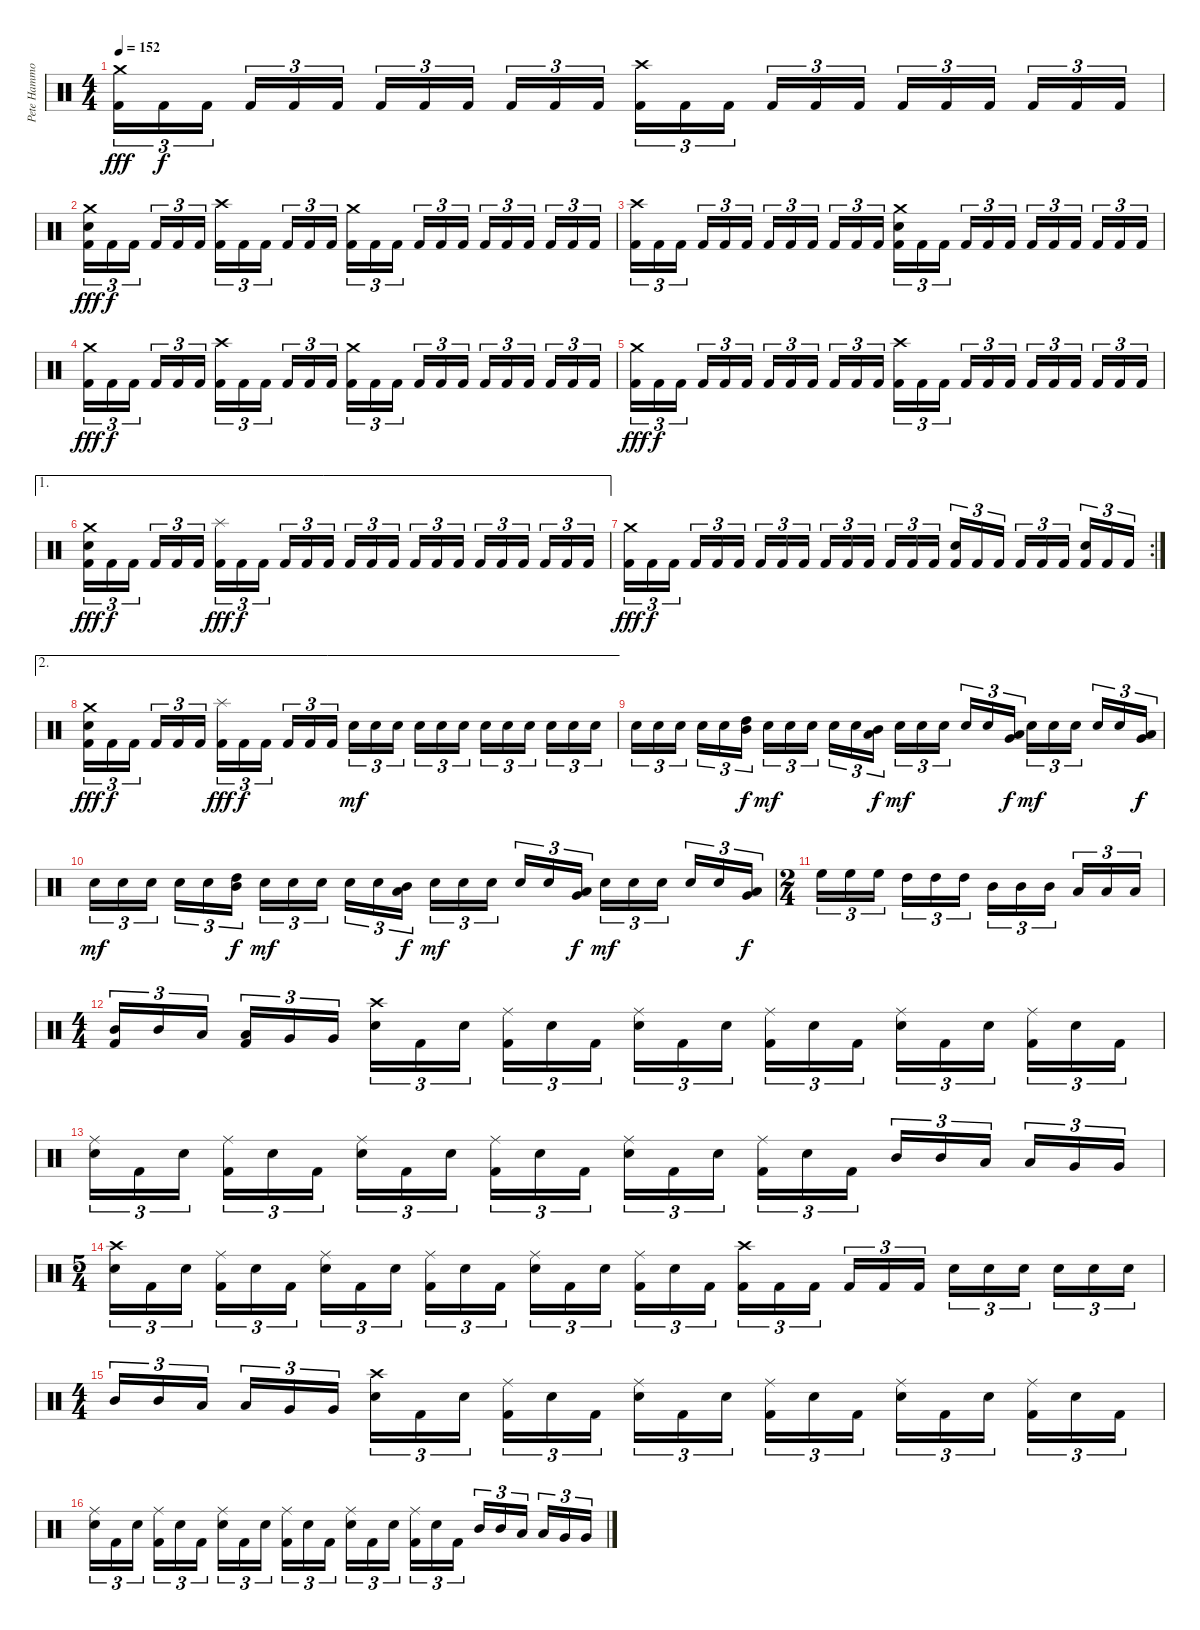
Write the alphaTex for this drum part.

\track ("Pete Hammoura" "Pete Hammo") {instrument percussion}
\staff {score}
\articulation defaults
\ts (4 4)
\tempo 152
\clef neutral
\ks c
("Crash medium (hit)" "Kick (hit) 2").16{tu (3 2) dy fff} "Kick (hit) 2".16{tu (3 2) dy f} "Kick (hit) 2".16{tu (3 2)} "Kick (hit) 2".16{tu (3 2)} "Kick (hit) 2".16{tu (3 2)} "Kick (hit) 2".16{tu (3 2)} "Kick (hit) 2".16{tu (3 2)} "Kick (hit) 2".16{tu (3 2)} "Kick (hit) 2".16{tu (3 2)} "Kick (hit) 2".16{tu (3 2)} "Kick (hit) 2".16{tu (3 2)} "Kick (hit) 2".16{tu (3 2)} ("Crash high (hit)" "Kick (hit) 2").16{tu (3 2)} "Kick (hit) 2".16{tu (3 2)} "Kick (hit) 2".16{tu (3 2)} "Kick (hit) 2".16{tu (3 2)} "Kick (hit) 2".16{tu (3 2)} "Kick (hit) 2".16{tu (3 2)} "Kick (hit) 2".16{tu (3 2)} "Kick (hit) 2".16{tu (3 2)} "Kick (hit) 2".16{tu (3 2)} "Kick (hit) 2".16{tu (3 2)} "Kick (hit) 2".16{tu (3 2)} "Kick (hit) 2".16{tu (3 2)} |
("Crash medium (hit)" "Electric Snare (hit)" "Kick (hit) 2").16{tu (3 2) dy fff} "Kick (hit) 2".16{tu (3 2) dy f} "Kick (hit) 2".16{tu (3 2)} "Kick (hit) 2".16{tu (3 2)} "Kick (hit) 2".16{tu (3 2)} "Kick (hit) 2".16{tu (3 2)} ("Crash high (hit)" "Kick (hit) 2").16{tu (3 2)} "Kick (hit) 2".16{tu (3 2)} "Kick (hit) 2".16{tu (3 2)} "Kick (hit) 2".16{tu (3 2)} "Kick (hit) 2".16{tu (3 2)} "Kick (hit) 2".16{tu (3 2)} ("Crash medium (hit)" "Kick (hit) 2").16{tu (3 2)} "Kick (hit) 2".16{tu (3 2)} "Kick (hit) 2".16{tu (3 2)} "Kick (hit) 2".16{tu (3 2)} "Kick (hit) 2".16{tu (3 2)} "Kick (hit) 2".16{tu (3 2)} "Kick (hit) 2".16{tu (3 2)} "Kick (hit) 2".16{tu (3 2)} "Kick (hit) 2".16{tu (3 2)} "Kick (hit) 2".16{tu (3 2)} "Kick (hit) 2".16{tu (3 2)} "Kick (hit) 2".16{tu (3 2)} |
("Crash high (hit)" "Kick (hit) 2").16{tu (3 2)} "Kick (hit) 2".16{tu (3 2)} "Kick (hit) 2".16{tu (3 2)} "Kick (hit) 2".16{tu (3 2)} "Kick (hit) 2".16{tu (3 2)} "Kick (hit) 2".16{tu (3 2)} "Kick (hit) 2".16{tu (3 2)} "Kick (hit) 2".16{tu (3 2)} "Kick (hit) 2".16{tu (3 2)} "Kick (hit) 2".16{tu (3 2)} "Kick (hit) 2".16{tu (3 2)} "Kick (hit) 2".16{tu (3 2)} ("Crash medium (hit)" "Electric Snare (hit)" "Kick (hit) 2").16{tu (3 2)} "Kick (hit) 2".16{tu (3 2)} "Kick (hit) 2".16{tu (3 2)} "Kick (hit) 2".16{tu (3 2)} "Kick (hit) 2".16{tu (3 2)} "Kick (hit) 2".16{tu (3 2)} "Kick (hit) 2".16{tu (3 2)} "Kick (hit) 2".16{tu (3 2)} "Kick (hit) 2".16{tu (3 2)} "Kick (hit) 2".16{tu (3 2)} "Kick (hit) 2".16{tu (3 2)} "Kick (hit) 2".16{tu (3 2)} |
("Crash medium (hit)" "Kick (hit) 2").16{tu (3 2) dy fff} "Kick (hit) 2".16{tu (3 2) dy f} "Kick (hit) 2".16{tu (3 2)} "Kick (hit) 2".16{tu (3 2)} "Kick (hit) 2".16{tu (3 2)} "Kick (hit) 2".16{tu (3 2)} ("Crash high (hit)" "Kick (hit) 2").16{tu (3 2)} "Kick (hit) 2".16{tu (3 2)} "Kick (hit) 2".16{tu (3 2)} "Kick (hit) 2".16{tu (3 2)} "Kick (hit) 2".16{tu (3 2)} "Kick (hit) 2".16{tu (3 2)} ("Crash medium (hit)" "Kick (hit) 2").16{tu (3 2)} "Kick (hit) 2".16{tu (3 2)} "Kick (hit) 2".16{tu (3 2)} "Kick (hit) 2".16{tu (3 2)} "Kick (hit) 2".16{tu (3 2)} "Kick (hit) 2".16{tu (3 2)} "Kick (hit) 2".16{tu (3 2)} "Kick (hit) 2".16{tu (3 2)} "Kick (hit) 2".16{tu (3 2)} "Kick (hit) 2".16{tu (3 2)} "Kick (hit) 2".16{tu (3 2)} "Kick (hit) 2".16{tu (3 2)} |
("Crash medium (hit)" "Kick (hit) 2").16{tu (3 2) dy fff} "Kick (hit) 2".16{tu (3 2) dy f} "Kick (hit) 2".16{tu (3 2)} "Kick (hit) 2".16{tu (3 2)} "Kick (hit) 2".16{tu (3 2)} "Kick (hit) 2".16{tu (3 2)} "Kick (hit) 2".16{tu (3 2)} "Kick (hit) 2".16{tu (3 2)} "Kick (hit) 2".16{tu (3 2)} "Kick (hit) 2".16{tu (3 2)} "Kick (hit) 2".16{tu (3 2)} "Kick (hit) 2".16{tu (3 2)} ("Crash high (hit)" "Kick (hit) 2").16{tu (3 2)} "Kick (hit) 2".16{tu (3 2)} "Kick (hit) 2".16{tu (3 2)} "Kick (hit) 2".16{tu (3 2)} "Kick (hit) 2".16{tu (3 2)} "Kick (hit) 2".16{tu (3 2)} "Kick (hit) 2".16{tu (3 2)} "Kick (hit) 2".16{tu (3 2)} "Kick (hit) 2".16{tu (3 2)} "Kick (hit) 2".16{tu (3 2)} "Kick (hit) 2".16{tu (3 2)} "Kick (hit) 2".16{tu (3 2)} |
\ae 1
("Crash medium (hit)" "Electric Snare (hit)" "Kick (hit) 2").16{tu (3 2) dy fff} "Kick (hit) 2".16{tu (3 2) dy f} "Kick (hit) 2".16{tu (3 2)} "Kick (hit) 2".16{tu (3 2)} "Kick (hit) 2".16{tu (3 2)} "Kick (hit) 2".16{tu (3 2)} ("Splash (hit)" "Kick (hit) 2").16{tu (3 2) dy fff} "Kick (hit) 2".16{tu (3 2) dy f} "Kick (hit) 2".16{tu (3 2)} "Kick (hit) 2".16{tu (3 2)} "Kick (hit) 2".16{tu (3 2)} "Kick (hit) 2".16{tu (3 2)} "Kick (hit) 2".16{tu (3 2)} "Kick (hit) 2".16{tu (3 2)} "Kick (hit) 2".16{tu (3 2)} "Kick (hit) 2".16{tu (3 2)} "Kick (hit) 2".16{tu (3 2)} "Kick (hit) 2".16{tu (3 2)} "Kick (hit) 2".16{tu (3 2)} "Kick (hit) 2".16{tu (3 2)} "Kick (hit) 2".16{tu (3 2)} "Kick (hit) 2".16{tu (3 2)} "Kick (hit) 2".16{tu (3 2)} "Kick (hit) 2".16{tu (3 2)} |
\rc 2
("Crash medium (hit)" "Kick (hit) 2").16{tu (3 2) dy fff} "Kick (hit) 2".16{tu (3 2) dy f} "Kick (hit) 2".16{tu (3 2)} "Kick (hit) 2".16{tu (3 2)} "Kick (hit) 2".16{tu (3 2)} "Kick (hit) 2".16{tu (3 2)} "Kick (hit) 2".16{tu (3 2)} "Kick (hit) 2".16{tu (3 2)} "Kick (hit) 2".16{tu (3 2)} "Kick (hit) 2".16{tu (3 2)} "Kick (hit) 2".16{tu (3 2)} "Kick (hit) 2".16{tu (3 2)} "Kick (hit) 2".16{tu (3 2)} "Kick (hit) 2".16{tu (3 2)} "Kick (hit) 2".16{tu (3 2)} ("Electric Snare (hit)" "Kick (hit) 2").16{tu (3 2)} "Kick (hit) 2".16{tu (3 2)} "Kick (hit) 2".16{tu (3 2)} "Kick (hit) 2".16{tu (3 2)} "Kick (hit) 2".16{tu (3 2)} "Kick (hit) 2".16{tu (3 2)} ("Electric Snare (hit)" "Kick (hit) 2").16{tu (3 2)} "Kick (hit) 2".16{tu (3 2)} "Kick (hit) 2".16{tu (3 2)} |
\ae 2
("Crash medium (hit)" "Electric Snare (hit)" "Kick (hit) 2").16{tu (3 2) dy fff} "Kick (hit) 2".16{tu (3 2) dy f} "Kick (hit) 2".16{tu (3 2)} "Kick (hit) 2".16{tu (3 2)} "Kick (hit) 2".16{tu (3 2)} "Kick (hit) 2".16{tu (3 2)} ("Splash (hit)" "Kick (hit) 2").16{tu (3 2) dy fff} "Kick (hit) 2".16{tu (3 2) dy f} "Kick (hit) 2".16{tu (3 2)} "Kick (hit) 2".16{tu (3 2)} "Kick (hit) 2".16{tu (3 2)} "Kick (hit) 2".16{tu (3 2)} "Electric Snare (hit)".16{tu (3 2) dy mf} "Electric Snare (hit)".16{tu (3 2)} "Electric Snare (hit)".16{tu (3 2)} "Electric Snare (hit)".16{tu (3 2)} "Electric Snare (hit)".16{tu (3 2)} "Electric Snare (hit)".16{tu (3 2)} "Electric Snare (hit)".16{tu (3 2)} "Electric Snare (hit)".16{tu (3 2)} "Electric Snare (hit)".16{tu (3 2)} "Electric Snare (hit)".16{tu (3 2)} "Electric Snare (hit)".16{tu (3 2)} "Electric Snare (hit)".16{tu (3 2)} |
"Electric Snare (hit)".16{tu (3 2)} "Electric Snare (hit)".16{tu (3 2)} "Electric Snare (hit)".16{tu (3 2)} "Electric Snare (hit)".16{tu (3 2)} "Electric Snare (hit)".16{tu (3 2)} ("High Tom (hit)" "Mid Tom (hit)").16{tu (3 2) dy f} "Electric Snare (hit)".16{tu (3 2) dy mf} "Electric Snare (hit)".16{tu (3 2)} "Electric Snare (hit)".16{tu (3 2)} "Electric Snare (hit)".16{tu (3 2)} "Electric Snare (hit)".16{tu (3 2)} ("Mid Tom (hit)" "Low Tom (hit)").16{tu (3 2) dy f} "Electric Snare (hit)".16{tu (3 2) dy mf} "Electric Snare (hit)".16{tu (3 2)} "Electric Snare (hit)".16{tu (3 2)} "Electric Snare (hit)".16{tu (3 2)} "Electric Snare (hit)".16{tu (3 2)} ("Low Tom (hit)" "Very Low Tom (hit)").16{tu (3 2) dy f} "Electric Snare (hit)".16{tu (3 2) dy mf} "Electric Snare (hit)".16{tu (3 2)} "Electric Snare (hit)".16{tu (3 2)} "Electric Snare (hit)".16{tu (3 2)} "Electric Snare (hit)".16{tu (3 2)} ("Very Low Tom (hit)" "Low Floor Tom (hit)").16{tu (3 2) dy f} |
"Electric Snare (hit)".16{tu (3 2) dy mf} "Electric Snare (hit)".16{tu (3 2)} "Electric Snare (hit)".16{tu (3 2)} "Electric Snare (hit)".16{tu (3 2)} "Electric Snare (hit)".16{tu (3 2)} ("High Tom (hit)" "Mid Tom (hit)").16{tu (3 2) dy f} "Electric Snare (hit)".16{tu (3 2) dy mf} "Electric Snare (hit)".16{tu (3 2)} "Electric Snare (hit)".16{tu (3 2)} "Electric Snare (hit)".16{tu (3 2)} "Electric Snare (hit)".16{tu (3 2)} ("Mid Tom (hit)" "Low Tom (hit)").16{tu (3 2) dy f} "Electric Snare (hit)".16{tu (3 2) dy mf} "Electric Snare (hit)".16{tu (3 2)} "Electric Snare (hit)".16{tu (3 2)} "Electric Snare (hit)".16{tu (3 2)} "Electric Snare (hit)".16{tu (3 2)} ("Low Tom (hit)" "Very Low Tom (hit)").16{tu (3 2) dy f} "Electric Snare (hit)".16{tu (3 2) dy mf} "Electric Snare (hit)".16{tu (3 2)} "Electric Snare (hit)".16{tu (3 2)} "Electric Snare (hit)".16{tu (3 2)} "Electric Snare (hit)".16{tu (3 2)} ("Very Low Tom (hit)" "Low Floor Tom (hit)").16{tu (3 2) dy f} |
\ts (2 4)
"High Floor Tom (hit)".16{tu (3 2)} "High Floor Tom (hit)".16{tu (3 2)} "High Floor Tom (hit)".16{tu (3 2)} "High Tom (hit)".16{tu (3 2)} "High Tom (hit)".16{tu (3 2)} "High Tom (hit)".16{tu (3 2)} "Mid Tom (hit)".16{tu (3 2)} "Mid Tom (hit)".16{tu (3 2)} "Mid Tom (hit)".16{tu (3 2)} "Low Tom (hit)".16{tu (3 2)} "Low Tom (hit)".16{tu (3 2)} "Low Tom (hit)".16{tu (3 2)} |
\ts (4 4)
("Mid Tom (hit)" "Kick (hit) 2").16{tu (3 2)} "Mid Tom (hit)".16{tu (3 2)} "Low Tom (hit)".16{tu (3 2)} ("Low Tom (hit)" "Kick (hit) 2").16{tu (3 2)} "Very Low Tom (hit)".16{tu (3 2)} "Very Low Tom (hit)".16{tu (3 2)} ("Crash high (hit)" "Electric Snare (hit)").16{tu (3 2)} "Kick (hit) 2".16{tu (3 2)} "Electric Snare (hit)".16{tu (3 2)} ("Ride (middle)" "Kick (hit) 2").16{tu (3 2)} "Electric Snare (hit)".16{tu (3 2)} "Kick (hit) 2".16{tu (3 2)} ("Ride (middle)" "Electric Snare (hit)").16{tu (3 2)} "Kick (hit) 2".16{tu (3 2)} "Electric Snare (hit)".16{tu (3 2)} ("Ride (middle)" "Kick (hit) 2").16{tu (3 2)} "Electric Snare (hit)".16{tu (3 2)} "Kick (hit) 2".16{tu (3 2)} ("Ride (middle)" "Electric Snare (hit)").16{tu (3 2)} "Kick (hit) 2".16{tu (3 2)} "Electric Snare (hit)".16{tu (3 2)} ("Ride (middle)" "Kick (hit) 2").16{tu (3 2)} "Electric Snare (hit)".16{tu (3 2)} "Kick (hit) 2".16{tu (3 2)} |
("Ride (middle)" "Electric Snare (hit)").16{tu (3 2)} "Kick (hit) 2".16{tu (3 2)} "Electric Snare (hit)".16{tu (3 2)} ("Ride (middle)" "Kick (hit) 2").16{tu (3 2)} "Electric Snare (hit)".16{tu (3 2)} "Kick (hit) 2".16{tu (3 2)} ("Ride (middle)" "Electric Snare (hit)").16{tu (3 2)} "Kick (hit) 2".16{tu (3 2)} "Electric Snare (hit)".16{tu (3 2)} ("Ride (middle)" "Kick (hit) 2").16{tu (3 2)} "Electric Snare (hit)".16{tu (3 2)} "Kick (hit) 2".16{tu (3 2)} ("Ride (middle)" "Electric Snare (hit)").16{tu (3 2)} "Kick (hit) 2".16{tu (3 2)} "Electric Snare (hit)".16{tu (3 2)} ("Ride (middle)" "Kick (hit) 2").16{tu (3 2)} "Electric Snare (hit)".16{tu (3 2)} "Kick (hit) 2".16{tu (3 2)} "Mid Tom (hit)".16{tu (3 2)} "Mid Tom (hit)".16{tu (3 2)} "Low Tom (hit)".16{tu (3 2)} "Low Tom (hit)".16{tu (3 2)} "Very Low Tom (hit)".16{tu (3 2)} "Very Low Tom (hit)".16{tu (3 2)} |
\ts (5 4)
("Crash high (hit)" "Electric Snare (hit)").16{tu (3 2)} "Kick (hit) 2".16{tu (3 2)} "Electric Snare (hit)".16{tu (3 2)} ("Ride (middle)" "Kick (hit) 2").16{tu (3 2)} "Electric Snare (hit)".16{tu (3 2)} "Kick (hit) 2".16{tu (3 2)} ("Ride (middle)" "Electric Snare (hit)").16{tu (3 2)} "Kick (hit) 2".16{tu (3 2)} "Electric Snare (hit)".16{tu (3 2)} ("Ride (middle)" "Kick (hit) 2").16{tu (3 2)} "Electric Snare (hit)".16{tu (3 2)} "Kick (hit) 2".16{tu (3 2)} ("Ride (middle)" "Electric Snare (hit)").16{tu (3 2)} "Kick (hit) 2".16{tu (3 2)} "Electric Snare (hit)".16{tu (3 2)} ("Ride (middle)" "Kick (hit) 2").16{tu (3 2)} "Electric Snare (hit)".16{tu (3 2)} "Kick (hit) 2".16{tu (3 2)} ("Crash high (hit)" "Kick (hit) 2").16{tu (3 2)} "Kick (hit) 2".16{tu (3 2)} "Kick (hit) 2".16{tu (3 2)} "Kick (hit) 2".16{tu (3 2)} "Kick (hit) 2".16{tu (3 2)} "Kick (hit) 2".16{tu (3 2)} "Electric Snare (hit)".16{tu (3 2)} "Electric Snare (hit)".16{tu (3 2)} "Electric Snare (hit)".16{tu (3 2)} "Electric Snare (hit)".16{tu (3 2)} "Electric Snare (hit)".16{tu (3 2)} "Electric Snare (hit)".16{tu (3 2)} |
\ts (4 4)
"Mid Tom (hit)".16{tu (3 2)} "Mid Tom (hit)".16{tu (3 2)} "Low Tom (hit)".16{tu (3 2)} "Low Tom (hit)".16{tu (3 2)} "Very Low Tom (hit)".16{tu (3 2)} "Very Low Tom (hit)".16{tu (3 2)} ("Crash high (hit)" "Electric Snare (hit)").16{tu (3 2)} "Kick (hit) 2".16{tu (3 2)} "Electric Snare (hit)".16{tu (3 2)} ("Ride (middle)" "Kick (hit) 2").16{tu (3 2)} "Electric Snare (hit)".16{tu (3 2)} "Kick (hit) 2".16{tu (3 2)} ("Ride (middle)" "Electric Snare (hit)").16{tu (3 2)} "Kick (hit) 2".16{tu (3 2)} "Electric Snare (hit)".16{tu (3 2)} ("Ride (middle)" "Kick (hit) 2").16{tu (3 2)} "Electric Snare (hit)".16{tu (3 2)} "Kick (hit) 2".16{tu (3 2)} ("Ride (middle)" "Electric Snare (hit)").16{tu (3 2)} "Kick (hit) 2".16{tu (3 2)} "Electric Snare (hit)".16{tu (3 2)} ("Ride (middle)" "Kick (hit) 2").16{tu (3 2)} "Electric Snare (hit)".16{tu (3 2)} "Kick (hit) 2".16{tu (3 2)} |
("Ride (middle)" "Electric Snare (hit)").16{tu (3 2)} "Kick (hit) 2".16{tu (3 2)} "Electric Snare (hit)".16{tu (3 2)} ("Ride (middle)" "Kick (hit) 2").16{tu (3 2)} "Electric Snare (hit)".16{tu (3 2)} "Kick (hit) 2".16{tu (3 2)} ("Ride (middle)" "Electric Snare (hit)").16{tu (3 2)} "Kick (hit) 2".16{tu (3 2)} "Electric Snare (hit)".16{tu (3 2)} ("Ride (middle)" "Kick (hit) 2").16{tu (3 2)} "Electric Snare (hit)".16{tu (3 2)} "Kick (hit) 2".16{tu (3 2)} ("Ride (middle)" "Electric Snare (hit)").16{tu (3 2)} "Kick (hit) 2".16{tu (3 2)} "Electric Snare (hit)".16{tu (3 2)} ("Ride (middle)" "Kick (hit) 2").16{tu (3 2)} "Electric Snare (hit)".16{tu (3 2)} "Kick (hit) 2".16{tu (3 2)} "Mid Tom (hit)".16{tu (3 2)} "Mid Tom (hit)".16{tu (3 2)} "Low Tom (hit)".16{tu (3 2)} "Low Tom (hit)".16{tu (3 2)} "Very Low Tom (hit)".16{tu (3 2)} "Very Low Tom (hit)".16{tu (3 2)}
